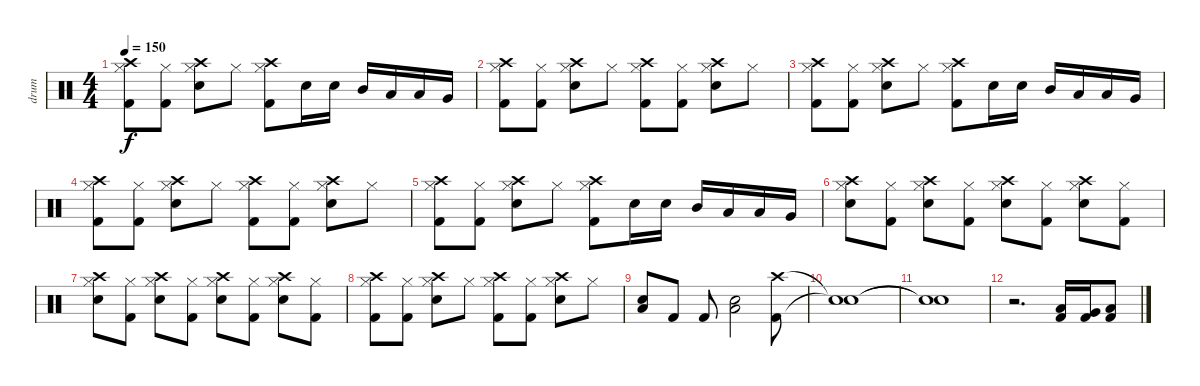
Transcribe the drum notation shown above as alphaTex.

\track ("drum" "drum") {instrument percussion}
\staff {score}
\articulation defaults
\ts (4 4)
\tempo 150
\clef neutral
\ks c
("Crash high (hit)" "Hi-Hat (closed)" "Kick (hit) 2").8{dy f} ("Hi-Hat (closed)" "Kick (hit) 2").8 ("Crash high (hit)" "Hi-Hat (closed)" "Electric Snare (hit)").8 "Hi-Hat (closed)".8 ("Crash high (hit)" "Hi-Hat (closed)" "Kick (hit) 2").8 "Electric Snare (hit)".16 "Electric Snare (hit)".16 "Mid Tom (hit)".16 "Low Tom (hit)".16 "Low Tom (hit)".16 "Very Low Tom (hit)".16 |
("Crash high (hit)" "Hi-Hat (closed)" "Kick (hit) 2").8 ("Hi-Hat (closed)" "Kick (hit) 2").8 ("Crash high (hit)" "Hi-Hat (closed)" "Electric Snare (hit)").8 "Hi-Hat (closed)".8 ("Crash high (hit)" "Hi-Hat (closed)" "Kick (hit) 2").8 ("Hi-Hat (closed)" "Kick (hit) 2").8 ("Crash high (hit)" "Hi-Hat (closed)" "Electric Snare (hit)").8 "Hi-Hat (closed)".8 |
("Crash high (hit)" "Hi-Hat (closed)" "Kick (hit) 2").8 ("Hi-Hat (closed)" "Kick (hit) 2").8 ("Crash high (hit)" "Hi-Hat (closed)" "Electric Snare (hit)").8 "Hi-Hat (closed)".8 ("Crash high (hit)" "Hi-Hat (closed)" "Kick (hit) 2").8 "Electric Snare (hit)".16 "Electric Snare (hit)".16 "Mid Tom (hit)".16 "Low Tom (hit)".16 "Low Tom (hit)".16 "Very Low Tom (hit)".16 |
("Crash high (hit)" "Hi-Hat (closed)" "Kick (hit) 2").8 ("Hi-Hat (closed)" "Kick (hit) 2").8 ("Crash high (hit)" "Hi-Hat (closed)" "Electric Snare (hit)").8 "Hi-Hat (closed)".8 ("Crash high (hit)" "Hi-Hat (closed)" "Kick (hit) 2").8 ("Hi-Hat (closed)" "Kick (hit) 2").8 ("Crash high (hit)" "Hi-Hat (closed)" "Electric Snare (hit)").8 "Hi-Hat (closed)".8 |
("Crash high (hit)" "Hi-Hat (closed)" "Kick (hit) 2").8 ("Hi-Hat (closed)" "Kick (hit) 2").8 ("Crash high (hit)" "Hi-Hat (closed)" "Electric Snare (hit)").8 "Hi-Hat (closed)".8 ("Crash high (hit)" "Hi-Hat (closed)" "Kick (hit) 2").8 "Electric Snare (hit)".16 "Electric Snare (hit)".16 "Mid Tom (hit)".16 "Low Tom (hit)".16 "Low Tom (hit)".16 "Very Low Tom (hit)".16 |
("Crash high (hit)" "Hi-Hat (closed)" "Electric Snare (hit)").8 ("Hi-Hat (closed)" "Kick (hit) 2").8 ("Crash high (hit)" "Hi-Hat (closed)" "Electric Snare (hit)").8 ("Hi-Hat (closed)" "Kick (hit) 2").8 ("Crash high (hit)" "Hi-Hat (closed)" "Electric Snare (hit)").8 ("Hi-Hat (closed)" "Kick (hit) 2").8 ("Crash high (hit)" "Hi-Hat (closed)" "Electric Snare (hit)").8 ("Hi-Hat (closed)" "Kick (hit) 2").8 |
("Crash high (hit)" "Hi-Hat (closed)" "Electric Snare (hit)").8 ("Hi-Hat (closed)" "Kick (hit) 2").8 ("Crash high (hit)" "Hi-Hat (closed)" "Electric Snare (hit)").8 ("Hi-Hat (closed)" "Kick (hit) 2").8 ("Crash high (hit)" "Hi-Hat (closed)" "Electric Snare (hit)").8 ("Hi-Hat (closed)" "Kick (hit) 2").8 ("Crash high (hit)" "Hi-Hat (closed)" "Electric Snare (hit)").8 ("Hi-Hat (closed)" "Kick (hit) 2").8 |
("Crash high (hit)" "Hi-Hat (closed)" "Kick (hit) 2").8 ("Hi-Hat (closed)" "Kick (hit) 2").8 ("Crash high (hit)" "Hi-Hat (closed)" "Electric Snare (hit)").8 "Hi-Hat (closed)".8 ("Crash high (hit)" "Hi-Hat (closed)" "Kick (hit) 2").8 ("Hi-Hat (closed)" "Kick (hit) 2").8 ("Crash high (hit)" "Hi-Hat (closed)" "Electric Snare (hit)").8 "Hi-Hat (closed)".8 |
("Low Floor Tom (hit)" "Electric Snare (hit)").8 "Kick (hit) 2".8 "Kick (hit) 2".8 ("Low Floor Tom (hit)" "Electric Snare (hit)").2 ("Crash high (hit)" "Kick (hit) 2").8 |
("Snare (hit)"{t} "Snare (hit)"{t}).1 |
("Snare (hit)"{t} "Snare (hit)"{t}).1 |
r.2{d} ("Low Tom (hit)" "Kick (hit) 2").16 ("Very Low Tom (hit)" "Kick (hit) 2").16 ("Low Floor Tom (hit)" "Kick (hit) 2").8
